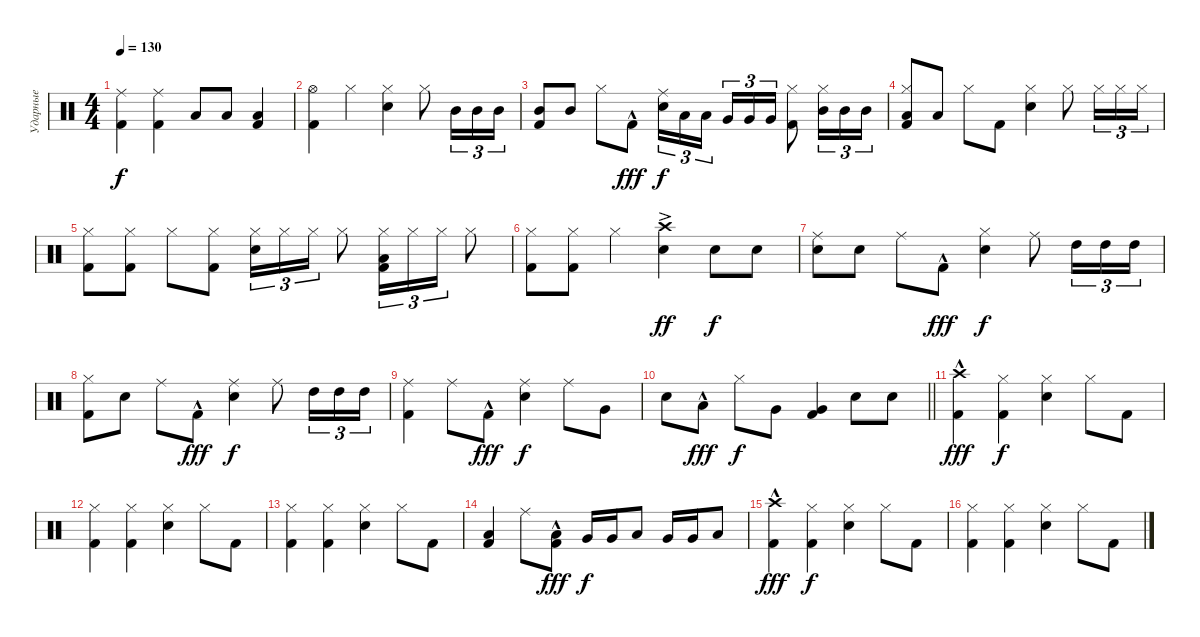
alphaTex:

\track ("Ударные" "Ударные") {instrument percussion}
\staff {score}
\articulation defaults
\ts (4 4)
\tempo 130
\clef neutral
\ks c
("Kick (hit) 2" "Ride (middle)").4{dy f} ("Kick (hit) 2" "Ride (middle)").4 "Low Floor Tom (hit)".8 "Low Floor Tom (hit)".8 ("Kick (hit) 2" "Low Floor Tom (hit)").4 |
("Kick (hit) 2" "Hi-Hat (open)").4 "Hi-Hat (closed)".4 ("Snare (hit) 2" "Hi-Hat (closed)").4 "Hi-Hat (closed)".8 "Mid Tom (hit)".16{tu (3 2)} "Mid Tom (hit)".16{tu (3 2)} "Mid Tom (hit)".16{tu (3 2)} |
("Kick (hit) 2" "Mid Tom (hit)").8 "Mid Tom (hit)".8 "Hi-Hat (closed)".8 "Kick (hit) 2"{hac}.8{dy fff} ("Snare (hit) 2" "Ride (middle)").16{tu (3 2) dy f} "Low Tom (hit)".16{tu (3 2)} "Low Tom (hit)".16{tu (3 2) beam splitsecondary} "Very Low Tom (hit)".16{tu (3 2)} "Very Low Tom (hit)".16{tu (3 2)} "Very Low Tom (hit)".16{tu (3 2)} ("Kick (hit) 2" "Hi-Hat (closed)").8 ("Mid Tom (hit)" "Hi-Hat (closed)").16{tu (3 2)} "Mid Tom (hit)".16{tu (3 2)} "Mid Tom (hit)".16{tu (3 2)} |
("Kick (hit) 2" "Low Tom (hit)" "Hi-Hat (closed)").8 "Low Tom (hit)".8 "Hi-Hat (closed)".8 "Kick (hit) 2".8 ("Snare (hit) 2" "Hi-Hat (closed)").4 "Hi-Hat (closed)".8 "Hi-Hat (closed)".16{tu (3 2)} "Hi-Hat (closed)".16{tu (3 2)} "Hi-Hat (closed)".16{tu (3 2)} |
("Kick (hit) 2" "Hi-Hat (closed)").8 ("Kick (hit) 2" "Hi-Hat (closed)").8 "Hi-Hat (closed)".8 ("Kick (hit) 2" "Hi-Hat (closed)").8 ("Snare (hit) 2" "Hi-Hat (closed)").16{tu (3 2)} "Hi-Hat (closed)".16{tu (3 2)} "Hi-Hat (closed)".16{tu (3 2)} "Hi-Hat (closed)".8 ("Kick (hit) 2" "Low Floor Tom (hit)" "Hi-Hat (closed)").16{tu (3 2)} "Hi-Hat (closed)".16{tu (3 2)} "Hi-Hat (closed)".16{tu (3 2)} "Hi-Hat (closed)".8 |
("Kick (hit) 2" "Hi-Hat (closed)").8 ("Kick (hit) 2" "Hi-Hat (closed)").8 "Hi-Hat (closed)".4 ("Snare (hit) 2" "Crash high (hit)"{ac}).4{dy ff} "Snare (hit) 2".8{dy f} "Snare (hit) 2".8 |
("Snare (hit) 2" "Ride (middle)").8 "Snare (hit) 2".8 "Ride (middle)".8 "Kick (hit) 2"{hac}.8{dy fff} ("Snare (hit) 2" "Hi-Hat (closed)").4{dy f} "Ride (middle)".8 "High Tom (hit)".16{tu (3 2)} "High Tom (hit)".16{tu (3 2)} "High Tom (hit)".16{tu (3 2)} |
("Kick (hit) 2" "Hi-Hat (closed)").8 "Snare (hit) 2".8 "Ride (middle)".8 "Kick (hit) 2"{hac}.8{dy fff} ("Snare (hit) 2" "Ride (middle)").4{dy f} "Ride (middle)".8 "High Tom (hit)".16{tu (3 2)} "High Tom (hit)".16{tu (3 2)} "High Tom (hit)".16{tu (3 2)} |
("Kick (hit) 2" "Ride (middle)").4 "Ride (middle)".8 "Kick (hit) 2"{hac}.8{dy fff} ("Snare (hit) 2" "Ride (middle)").4{dy f} "Ride (middle)".8 "Very Low Tom (hit)".8 |
\barLineRight lightlight "Snare (hit) 2".8 "Low Floor Tom (hit)"{hac}.8{dy fff} "Hi-Hat (closed)".8{dy f} "Very Low Tom (hit)".8
("Kick (hit) 2" "Very Low Tom (hit)").4 "Snare (hit) 2".8 "Snare (hit) 2".8 |
("Kick (hit) 2" "Crash high (hit)"{hac}).4{dy fff} ("Kick (hit) 2" "Hi-Hat (closed)").4{dy f} ("Snare (hit) 2" "Hi-Hat (closed)").4 "Hi-Hat (closed)".8 "Kick (hit) 2".8 |
("Kick (hit) 2" "Hi-Hat (closed)").4 ("Kick (hit) 2" "Hi-Hat (closed)").4 ("Snare (hit) 2" "Hi-Hat (closed)").4 "Hi-Hat (closed)".8 "Kick (hit) 2".8 |
("Kick (hit) 2" "Hi-Hat (closed)").4 ("Kick (hit) 2" "Hi-Hat (closed)").4 ("Snare (hit) 2" "Hi-Hat (closed)").4 "Hi-Hat (closed)".8 "Kick (hit) 2".8 |
("Kick (hit) 2" "Low Tom (hit)").4 "Ride (middle)".8 ("Kick (hit) 2"{hac} "Low Tom (hit)").8{dy fff} "Very Low Tom (hit)".16{dy f} "Very Low Tom (hit)".16 "Low Floor Tom (hit)".8 "Very Low Tom (hit)".16 "Very Low Tom (hit)".16 "Low Floor Tom (hit)".8 |
("Kick (hit) 2" "Crash high (hit)"{hac}).4{dy fff} ("Kick (hit) 2" "Hi-Hat (closed)").4{dy f} ("Snare (hit) 2" "Hi-Hat (closed)").4 "Hi-Hat (closed)".8 "Kick (hit) 2".8 |
("Kick (hit) 2" "Hi-Hat (closed)").4 ("Kick (hit) 2" "Hi-Hat (closed)").4 ("Snare (hit) 2" "Hi-Hat (closed)").4 "Hi-Hat (closed)".8 "Kick (hit) 2".8
